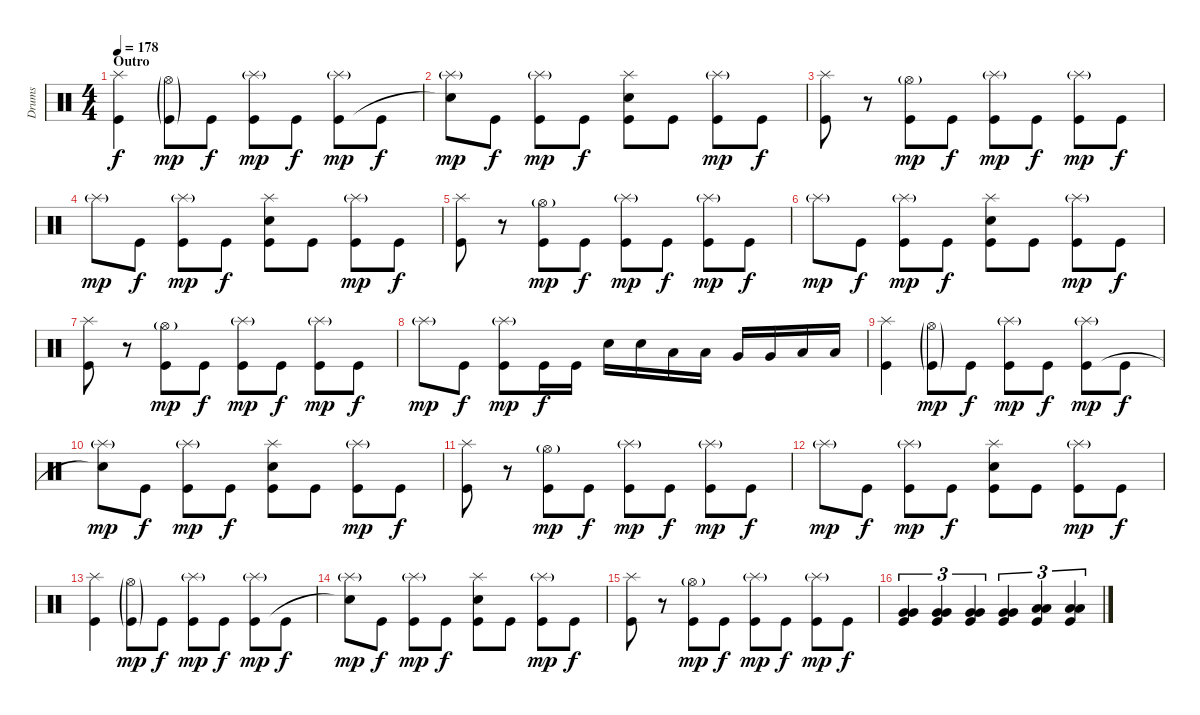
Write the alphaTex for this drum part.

\track ("Drums" "Drums") {instrument percussion}
\staff {score}
\articulation defaults
\ts (4 4)
\section ("" "Outro")
\tempo 178
\clef neutral
\ks c
("Splash (hit)" "Kick (hit)").4{dy f} ("Hi-Hat (open)"{g} "Kick (hit)"{g}).8{dy mp} "Kick (hit)".8{dy f} ("Splash (hit)"{g} "Kick (hit)").8{dy mp} "Kick (hit)".8{dy f} ("Splash (hit)"{g} "Kick (hit)").8{dy mp} "Kick (hit)".8{dy f} |
("Splash (hit)"{g} "Snare (hit)"{t}).8{dy mp} "Kick (hit)".8{dy f} ("Splash (hit)"{g} "Kick (hit)").8{dy mp} "Kick (hit)".8{dy f} ("Splash (hit)" "Snare (hit) 2" "Kick (hit)").8 "Kick (hit)".8 ("Splash (hit)"{g} "Kick (hit)").8{dy mp} "Kick (hit)".8{dy f} |
("Splash (hit)" "Kick (hit)").8 r.8 ("Hi-Hat (open)"{g} "Kick (hit)").8{dy mp} "Kick (hit)".8{dy f} ("Splash (hit)"{g} "Kick (hit)").8{dy mp} "Kick (hit)".8{dy f} ("Splash (hit)"{g} "Kick (hit)").8{dy mp} "Kick (hit)".8{dy f} |
"Splash (hit)"{g}.8{dy mp} "Kick (hit)".8{dy f} ("Splash (hit)"{g} "Kick (hit)").8{dy mp} "Kick (hit)".8{dy f} ("Splash (hit)" "Snare (hit) 2" "Kick (hit)").8 "Kick (hit)".8 ("Splash (hit)"{g} "Kick (hit)").8{dy mp} "Kick (hit)".8{dy f} |
("Splash (hit)" "Kick (hit)").8 r.8 ("Hi-Hat (open)"{g} "Kick (hit)").8{dy mp} "Kick (hit)".8{dy f} ("Splash (hit)"{g} "Kick (hit)").8{dy mp} "Kick (hit)".8{dy f} ("Splash (hit)"{g} "Kick (hit)").8{dy mp} "Kick (hit)".8{dy f} |
"Splash (hit)"{g}.8{dy mp} "Kick (hit)".8{dy f} ("Splash (hit)"{g} "Kick (hit)").8{dy mp} "Kick (hit)".8{dy f} ("Splash (hit)" "Snare (hit) 2" "Kick (hit)").8 "Kick (hit)".8 ("Splash (hit)"{g} "Kick (hit)").8{dy mp} "Kick (hit)".8{dy f} |
("Splash (hit)" "Kick (hit)").8 r.8 ("Hi-Hat (open)"{g} "Kick (hit)").8{dy mp} "Kick (hit)".8{dy f} ("Splash (hit)"{g} "Kick (hit)").8{dy mp} "Kick (hit)".8{dy f} ("Splash (hit)"{g} "Kick (hit)").8{dy mp} "Kick (hit)".8{dy f} |
"Splash (hit)"{g}.8{dy mp} "Kick (hit)".8{dy f} ("Splash (hit)"{g} "Kick (hit)").8{dy mp} "Kick (hit)".16{dy f} "Kick (hit)".16 "Snare (hit) 2".16 "Snare (hit) 2".16 "Low Tom (hit)".16 "Low Tom (hit)".16 "Very Low Tom (hit)".16 "Very Low Tom (hit)".16 "Low Floor Tom (hit)".16 "Low Floor Tom (hit)".16 |
("Splash (hit)" "Kick (hit)").4 ("Hi-Hat (open)"{g} "Kick (hit)"{g}).8{dy mp} "Kick (hit)".8{dy f} ("Splash (hit)"{g} "Kick (hit)").8{dy mp} "Kick (hit)".8{dy f} ("Splash (hit)"{g} "Kick (hit)").8{dy mp} "Kick (hit)".8{dy f} |
("Splash (hit)"{g} "Snare (hit)"{t}).8{dy mp} "Kick (hit)".8{dy f} ("Splash (hit)"{g} "Kick (hit)").8{dy mp} "Kick (hit)".8{dy f} ("Splash (hit)" "Snare (hit) 2" "Kick (hit)").8 "Kick (hit)".8 ("Splash (hit)"{g} "Kick (hit)").8{dy mp} "Kick (hit)".8{dy f} |
("Splash (hit)" "Kick (hit)").8 r.8 ("Hi-Hat (open)"{g} "Kick (hit)").8{dy mp} "Kick (hit)".8{dy f} ("Splash (hit)"{g} "Kick (hit)").8{dy mp} "Kick (hit)".8{dy f} ("Splash (hit)"{g} "Kick (hit)").8{dy mp} "Kick (hit)".8{dy f} |
"Splash (hit)"{g}.8{dy mp} "Kick (hit)".8{dy f} ("Splash (hit)"{g} "Kick (hit)").8{dy mp} "Kick (hit)".8{dy f} ("Splash (hit)" "Snare (hit) 2" "Kick (hit)").8 "Kick (hit)".8 ("Splash (hit)"{g} "Kick (hit)").8{dy mp} "Kick (hit)".8{dy f} |
("Splash (hit)" "Kick (hit)").4 ("Hi-Hat (open)"{g} "Kick (hit)"{g}).8{dy mp} "Kick (hit)".8{dy f} ("Splash (hit)"{g} "Kick (hit)").8{dy mp} "Kick (hit)".8{dy f} ("Splash (hit)"{g} "Kick (hit)").8{dy mp} "Kick (hit)".8{dy f} |
("Splash (hit)"{g} "Snare (hit)"{t}).8{dy mp} "Kick (hit)".8{dy f} ("Splash (hit)"{g} "Kick (hit)").8{dy mp} "Kick (hit)".8{dy f} ("Splash (hit)" "Snare (hit) 2" "Kick (hit)").8 "Kick (hit)".8 ("Splash (hit)"{g} "Kick (hit)").8{dy mp} "Kick (hit)".8{dy f} |
("Splash (hit)" "Kick (hit)").8 r.8 ("Hi-Hat (open)"{g} "Kick (hit)").8{dy mp} "Kick (hit)".8{dy f} ("Splash (hit)"{g} "Kick (hit)").8{dy mp} "Kick (hit)".8{dy f} ("Splash (hit)"{g} "Kick (hit)").8{dy mp} "Kick (hit)".8{dy f} |
("Very Low Tom (hit)" "Very Low Tom (hit)" "Kick (hit)").4{tu (3 2)} ("Very Low Tom (hit)" "Very Low Tom (hit)" "Kick (hit)").4{tu (3 2)} ("Very Low Tom (hit)" "Very Low Tom (hit)" "Kick (hit)").4{tu (3 2)} ("Very Low Tom (hit)" "Very Low Tom (hit)" "Kick (hit)").4{tu (3 2)} ("Low Floor Tom (hit)" "Low Floor Tom (hit)" "Kick (hit)").4{tu (3 2)} ("Low Floor Tom (hit)" "Low Floor Tom (hit)" "Kick (hit)").4{tu (3 2)}
